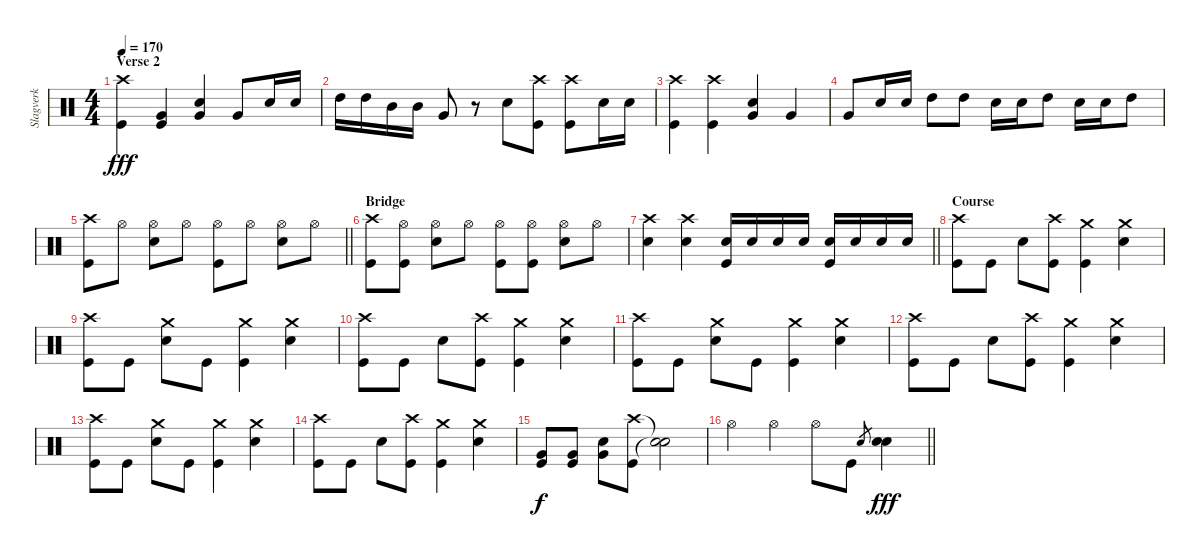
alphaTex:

\track ("Slagverk" "Slagverk") {instrument percussion}
\staff {score}
\articulation defaults
\ts (4 4)
\section ("" "Verse 2")
\tempo 170
\clef neutral
\ks c
("Crash high (hit)" "Kick (hit)").4{dy fff} ("Very Low Tom (hit)" "Kick (hit)").4 ("Very Low Tom (hit)" "Electric Snare (hit)").4 "Very Low Tom (hit)".8 "Electric Snare (hit)".16 "Electric Snare (hit)".16 |
"High Tom (hit)".16 "High Tom (hit)".16 "Mid Tom (hit)".16 "Mid Tom (hit)".16 "Very Low Tom (hit)".8 r.8 "Electric Snare (hit)".8 ("Crash high (hit)" "Kick (hit)").8 ("Crash high (hit)" "Kick (hit)").8 "Electric Snare (hit)".16 "Electric Snare (hit)".16 |
("Crash high (hit)" "Kick (hit)").4 ("Crash high (hit)" "Kick (hit)").4 ("Very Low Tom (hit)" "Electric Snare (hit)").4 "Very Low Tom (hit)".4 |
"Very Low Tom (hit)".8 "Electric Snare (hit)".16 "Electric Snare (hit)".16 "High Tom (hit)".8 "High Tom (hit)".8 "Electric Snare (hit)".16 "Electric Snare (hit)".16 "High Tom (hit)".8 "Electric Snare (hit)".16 "Electric Snare (hit)".16 "High Tom (hit)".8 |
\barLineRight lightlight
("Crash high (hit)" "Kick (hit)").8 "Hi-Hat (open)".8 ("Hi-Hat (open)" "Electric Snare (hit)").8 "Hi-Hat (open)".8 ("Hi-Hat (open)" "Kick (hit)").8 "Hi-Hat (open)".8 ("Hi-Hat (open)" "Electric Snare (hit)").8 "Hi-Hat (open)".8 |
\section ("" "Bridge")
("Crash high (hit)" "Kick (hit)").8 ("Hi-Hat (open)" "Kick (hit)").8 ("Hi-Hat (open)" "Electric Snare (hit)").8 "Hi-Hat (open)".8 ("Hi-Hat (open)" "Kick (hit)").8 ("Hi-Hat (open)" "Kick (hit)").8 ("Hi-Hat (open)" "Electric Snare (hit)").8 "Hi-Hat (open)".8 |
\barLineRight lightlight
("Crash high (hit)" "Electric Snare (hit)").4 ("Crash high (hit)" "Electric Snare (hit)").4 ("Electric Snare (hit)" "Kick (hit)").16 "Electric Snare (hit)".16 "Electric Snare (hit)".16 "Electric Snare (hit)".16 ("Electric Snare (hit)" "Kick (hit)").16 "Electric Snare (hit)".16 "Electric Snare (hit)".16 "Electric Snare (hit)".16 |
\section ("" "Course")
("Crash high (hit)" "Kick (hit)").8 "Kick (hit)".8 "Electric Snare (hit)".8 ("Crash high (hit)" "Kick (hit)").8 ("Crash medium (hit)" "Kick (hit)").4 ("Crash medium (hit)" "Electric Snare (hit)").4 |
("Crash high (hit)" "Kick (hit)").8 "Kick (hit)".8 ("Crash medium (hit)" "Electric Snare (hit)").8 "Kick (hit)".8 ("Crash medium (hit)" "Kick (hit)").4 ("Crash medium (hit)" "Electric Snare (hit)").4 |
("Crash high (hit)" "Kick (hit)").8 "Kick (hit)".8 "Electric Snare (hit)".8 ("Crash high (hit)" "Kick (hit)").8 ("Crash medium (hit)" "Kick (hit)").4 ("Crash medium (hit)" "Electric Snare (hit)").4 |
("Crash high (hit)" "Kick (hit)").8 "Kick (hit)".8 ("Crash medium (hit)" "Electric Snare (hit)").8 "Kick (hit)".8 ("Crash medium (hit)" "Kick (hit)").4 ("Crash medium (hit)" "Electric Snare (hit)").4 |
("Crash high (hit)" "Kick (hit)").8 "Kick (hit)".8 "Electric Snare (hit)".8 ("Crash high (hit)" "Kick (hit)").8 ("Crash medium (hit)" "Kick (hit)").4 ("Crash medium (hit)" "Electric Snare (hit)").4 |
("Crash high (hit)" "Kick (hit)").8 "Kick (hit)".8 ("Crash medium (hit)" "Electric Snare (hit)").8 "Kick (hit)".8 ("Crash medium (hit)" "Kick (hit)").4 ("Crash medium (hit)" "Electric Snare (hit)").4 |
("Crash high (hit)" "Kick (hit)").8 "Kick (hit)".8 "Electric Snare (hit)".8 ("Crash high (hit)" "Kick (hit)").8 ("Crash medium (hit)" "Kick (hit)").4 ("Crash medium (hit)" "Electric Snare (hit)").4 |
("Very Low Tom (hit)" "Kick (hit)").8{dy f} ("Very Low Tom (hit)" "Kick (hit)").8 ("Very Low Tom (hit)" "Electric Snare (hit)").8 ("Crash high (hit)" "Kick (hit)").8 ("Snare (hit)"{t} "Snare (hit)"{t}).2 |
\barLineRight lightlight "Hi-Hat (open)".4 "Hi-Hat (open)".4 "Hi-Hat (open)".8 "Kick (hit)".8 "Electric Snare (hit)".8{gr}
("Electric Snare (hit)" "Electric Snare (hit)").4{dy fff}
